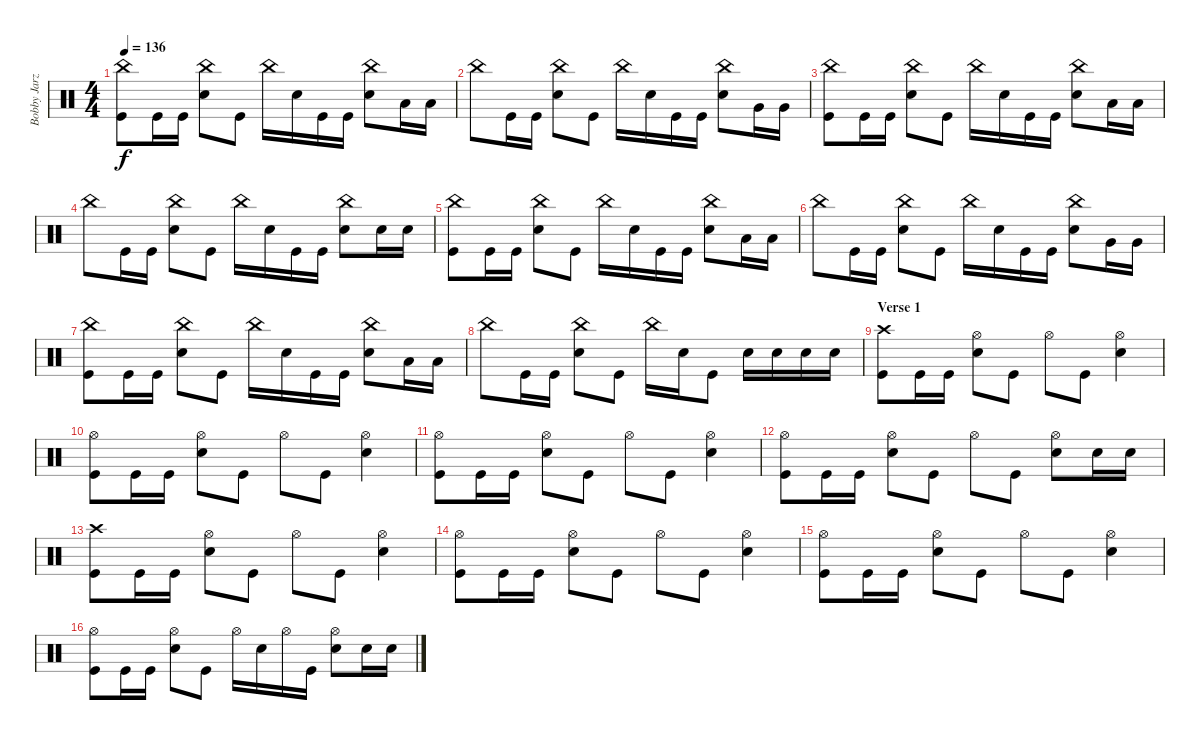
\track ("Bobby Jarzombek" "Bobby Jarz") {instrument percussion}
\staff {score}
\articulation defaults
\ts (4 4)
\tempo 136
\clef neutral
\ks c
("China (hit)" "Kick (hit)").8{dy f} "Kick (hit)".16 "Kick (hit)".16 ("China (hit)" "Electric Snare (hit)").8 "Kick (hit)".8 "China (hit)".16 "Electric Snare (hit)".16 "Kick (hit)".16 "Kick (hit)".16 ("China (hit)" "Electric Snare (hit)").8 "Low Tom (hit)".16 "Low Tom (hit)".16 |
"China (hit)".8 "Kick (hit)".16 "Kick (hit)".16 ("China (hit)" "Electric Snare (hit)").8 "Kick (hit)".8 "China (hit)".16 "Electric Snare (hit)".16 "Kick (hit)".16 "Kick (hit)".16 ("China (hit)" "Electric Snare (hit)").8 "Very Low Tom (hit)".16 "Very Low Tom (hit)".16 |
("China (hit)" "Kick (hit)").8 "Kick (hit)".16 "Kick (hit)".16 ("China (hit)" "Electric Snare (hit)").8 "Kick (hit)".8 "China (hit)".16 "Electric Snare (hit)".16 "Kick (hit)".16 "Kick (hit)".16 ("China (hit)" "Electric Snare (hit)").8 "Low Tom (hit)".16 "Low Tom (hit)".16 |
"China (hit)".8 "Kick (hit)".16 "Kick (hit)".16 ("China (hit)" "Electric Snare (hit)").8 "Kick (hit)".8 "China (hit)".16 "Electric Snare (hit)".16 "Kick (hit)".16 "Kick (hit)".16 ("China (hit)" "Electric Snare (hit)").8 "Electric Snare (hit)".16 "Electric Snare (hit)".16 |
("China (hit)" "Kick (hit)").8 "Kick (hit)".16 "Kick (hit)".16 ("China (hit)" "Electric Snare (hit)").8 "Kick (hit)".8 "China (hit)".16 "Electric Snare (hit)".16 "Kick (hit)".16 "Kick (hit)".16 ("China (hit)" "Electric Snare (hit)").8 "Low Tom (hit)".16 "Low Tom (hit)".16 |
"China (hit)".8 "Kick (hit)".16 "Kick (hit)".16 ("China (hit)" "Electric Snare (hit)").8 "Kick (hit)".8 "China (hit)".16 "Electric Snare (hit)".16 "Kick (hit)".16 "Kick (hit)".16 ("China (hit)" "Electric Snare (hit)").8 "Very Low Tom (hit)".16 "Very Low Tom (hit)".16 |
("China (hit)" "Kick (hit)").8 "Kick (hit)".16 "Kick (hit)".16 ("China (hit)" "Electric Snare (hit)").8 "Kick (hit)".8 "China (hit)".16 "Electric Snare (hit)".16 "Kick (hit)".16 "Kick (hit)".16 ("China (hit)" "Electric Snare (hit)").8 "Low Tom (hit)".16 "Low Tom (hit)".16 |
"China (hit)".8 "Kick (hit)".16 "Kick (hit)".16 ("China (hit)" "Electric Snare (hit)").8 "Kick (hit)".8 "China (hit)".16 "Electric Snare (hit)".16 "Kick (hit)".8 "Electric Snare (hit)".16 "Electric Snare (hit)".16 "Electric Snare (hit)".16 "Electric Snare (hit)".16 |
\section ("" "Verse 1")
("Crash high (hit)" "Kick (hit)").8 "Kick (hit)".16 "Kick (hit)".16 ("Hi-Hat (open)" "Electric Snare (hit)").8 "Kick (hit)".8 "Hi-Hat (open)".8 "Kick (hit)".8 ("Hi-Hat (open)" "Electric Snare (hit)").4 |
("Hi-Hat (open)" "Kick (hit)").8 "Kick (hit)".16 "Kick (hit)".16 ("Hi-Hat (open)" "Electric Snare (hit)").8 "Kick (hit)".8 "Hi-Hat (open)".8 "Kick (hit)".8 ("Hi-Hat (open)" "Electric Snare (hit)").4 |
("Hi-Hat (open)" "Kick (hit)").8 "Kick (hit)".16 "Kick (hit)".16 ("Hi-Hat (open)" "Electric Snare (hit)").8 "Kick (hit)".8 "Hi-Hat (open)".8 "Kick (hit)".8 ("Hi-Hat (open)" "Electric Snare (hit)").4 |
("Hi-Hat (open)" "Kick (hit)").8 "Kick (hit)".16 "Kick (hit)".16 ("Hi-Hat (open)" "Electric Snare (hit)").8 "Kick (hit)".8 "Hi-Hat (open)".8 "Kick (hit)".8 ("Hi-Hat (open)" "Electric Snare (hit)").8 "Electric Snare (hit)".16 "Electric Snare (hit)".16 |
("Crash high (hit)" "Kick (hit)").8 "Kick (hit)".16 "Kick (hit)".16 ("Hi-Hat (open)" "Electric Snare (hit)").8 "Kick (hit)".8 "Hi-Hat (open)".8 "Kick (hit)".8 ("Hi-Hat (open)" "Electric Snare (hit)").4 |
("Hi-Hat (open)" "Kick (hit)").8 "Kick (hit)".16 "Kick (hit)".16 ("Hi-Hat (open)" "Electric Snare (hit)").8 "Kick (hit)".8 "Hi-Hat (open)".8 "Kick (hit)".8 ("Hi-Hat (open)" "Electric Snare (hit)").4 |
("Hi-Hat (open)" "Kick (hit)").8 "Kick (hit)".16 "Kick (hit)".16 ("Hi-Hat (open)" "Electric Snare (hit)").8 "Kick (hit)".8 "Hi-Hat (open)".8 "Kick (hit)".8 ("Hi-Hat (open)" "Electric Snare (hit)").4 |
("Hi-Hat (open)" "Kick (hit)").8 "Kick (hit)".16 "Kick (hit)".16 ("Hi-Hat (open)" "Electric Snare (hit)").8 "Kick (hit)".8 "Hi-Hat (open)".16 "Electric Snare (hit)".16 "Hi-Hat (open)".16 "Kick (hit)".16 ("Hi-Hat (open)" "Electric Snare (hit)").8 "Electric Snare (hit)".16 "Electric Snare (hit)".16
